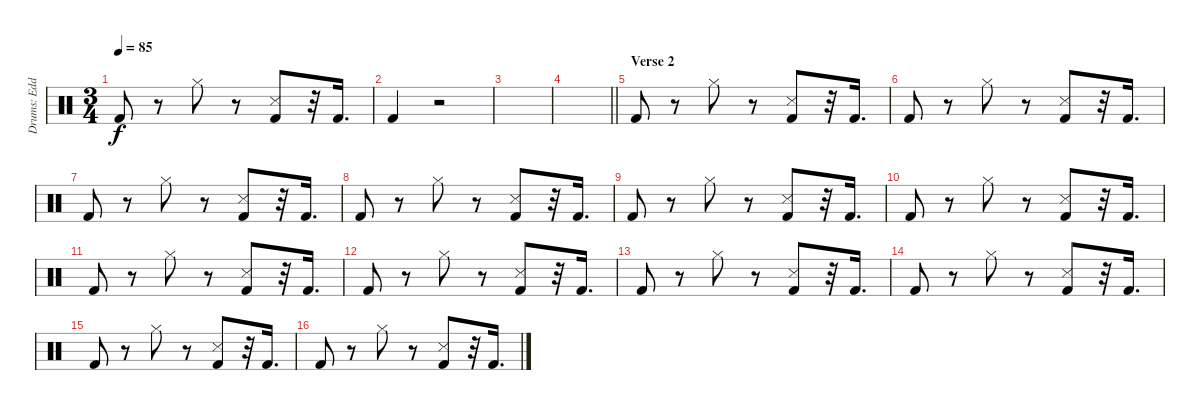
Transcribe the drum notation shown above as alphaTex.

\track ("Drums: Eddie Bayers" "Drums: Edd") {instrument percussion}
\staff {score}
\articulation defaults
\ts (3 4)
\tempo 85
\clef neutral
\ks c "Kick (hit) 2".8{dy f}
r.8 "Hi-Hat (closed)".8 r.8 ("Snare (side stick) 3" "Kick (hit) 2").8 r.32 "Kick (hit) 2".16{d} |
"Kick (hit) 2".4 r.2 |
|
\barLineRight lightlight
|
\section ("" "Verse 2")
"Kick (hit) 2".8 r.8 "Hi-Hat (closed)".8 r.8 ("Snare (side stick) 3" "Kick (hit) 2").8 r.32 "Kick (hit) 2".16{d} |
"Kick (hit) 2".8 r.8 "Hi-Hat (closed)".8 r.8 ("Snare (side stick) 3" "Kick (hit) 2").8 r.32 "Kick (hit) 2".16{d} |
"Kick (hit) 2".8 r.8 "Hi-Hat (closed)".8 r.8 ("Snare (side stick) 3" "Kick (hit) 2").8 r.32 "Kick (hit) 2".16{d} |
"Kick (hit) 2".8 r.8 "Hi-Hat (closed)".8 r.8 ("Snare (side stick) 3" "Kick (hit) 2").8 r.32 "Kick (hit) 2".16{d} |
"Kick (hit) 2".8 r.8 "Hi-Hat (closed)".8 r.8 ("Snare (side stick) 3" "Kick (hit) 2").8 r.32 "Kick (hit) 2".16{d} |
"Kick (hit) 2".8 r.8 "Hi-Hat (closed)".8 r.8 ("Snare (side stick) 3" "Kick (hit) 2").8 r.32 "Kick (hit) 2".16{d} |
"Kick (hit) 2".8 r.8 "Hi-Hat (closed)".8 r.8 ("Snare (side stick) 3" "Kick (hit) 2").8 r.32 "Kick (hit) 2".16{d} |
"Kick (hit) 2".8 r.8 "Hi-Hat (closed)".8 r.8 ("Snare (side stick) 3" "Kick (hit) 2").8 r.32 "Kick (hit) 2".16{d} |
"Kick (hit) 2".8 r.8 "Hi-Hat (closed)".8 r.8 ("Snare (side stick) 3" "Kick (hit) 2").8 r.32 "Kick (hit) 2".16{d} |
"Kick (hit) 2".8 r.8 "Hi-Hat (closed)".8 r.8 ("Snare (side stick) 3" "Kick (hit) 2").8 r.32 "Kick (hit) 2".16{d} |
"Kick (hit) 2".8 r.8 "Hi-Hat (closed)".8 r.8 ("Snare (side stick) 3" "Kick (hit) 2").8 r.32 "Kick (hit) 2".16{d} |
"Kick (hit) 2".8 r.8 "Hi-Hat (closed)".8 r.8 ("Snare (side stick) 3" "Kick (hit) 2").8 r.32 "Kick (hit) 2".16{d}
